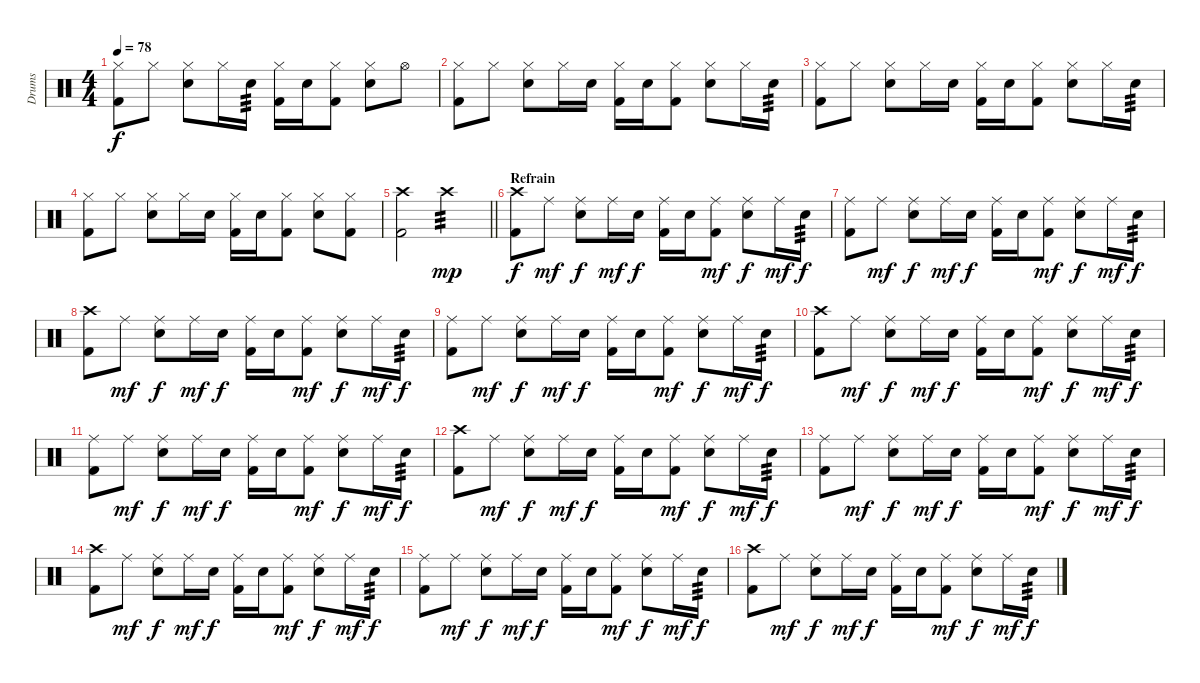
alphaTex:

\track ("Drums" "Drums") {instrument percussion}
\staff {score}
\articulation defaults
\ts (4 4)
\tempo 78
\clef neutral
\ks c
("Hi-Hat (closed)" "Kick (hit) 2").8{dy f} "Hi-Hat (closed)".8 ("Hi-Hat (closed)" "Snare (hit) 2").8 "Hi-Hat (closed)".16 "Snare (hit) 2".16{tp 3} ("Hi-Hat (closed)" "Kick (hit) 2").16 "Snare (hit) 2".16 ("Hi-Hat (closed)" "Kick (hit) 2").8 ("Hi-Hat (closed)" "Snare (hit) 2").8 "Hi-Hat (open)".8 |
("Hi-Hat (closed)" "Kick (hit) 2").8 "Hi-Hat (closed)".8 ("Hi-Hat (closed)" "Snare (hit) 2").8 "Hi-Hat (closed)".16 "Snare (hit) 2".16 ("Hi-Hat (closed)" "Kick (hit) 2").16 "Snare (hit) 2".16 ("Hi-Hat (closed)" "Kick (hit) 2").8 ("Hi-Hat (closed)" "Snare (hit) 2").8 "Hi-Hat (closed)".16 "Snare (hit) 2".16{tp 3} |
("Hi-Hat (closed)" "Kick (hit) 2").8 "Hi-Hat (closed)".8 ("Hi-Hat (closed)" "Snare (hit) 2").8 "Hi-Hat (closed)".16 "Snare (hit) 2".16 ("Hi-Hat (closed)" "Kick (hit) 2").16 "Snare (hit) 2".16 ("Hi-Hat (closed)" "Kick (hit) 2").8 ("Hi-Hat (closed)" "Snare (hit) 2").8 "Hi-Hat (closed)".16 "Snare (hit) 2".16{tp 3} |
("Hi-Hat (closed)" "Kick (hit) 2").8 "Hi-Hat (closed)".8 ("Hi-Hat (closed)" "Snare (hit) 2").8 "Hi-Hat (closed)".16 "Snare (hit) 2".16 ("Hi-Hat (closed)" "Kick (hit) 2").16 "Snare (hit) 2".16 ("Hi-Hat (closed)" "Kick (hit) 2").8 ("Hi-Hat (closed)" "Snare (hit) 2").8 ("Hi-Hat (closed)" "Kick (hit) 2").8 |
\barLineRight lightlight
("Crash high (hit)" "Kick (hit) 2").2{volume 0} "Crash high (hit)".2{tp 3 dy mp volume 13} |
\section ("" "Refrain")
("Crash high (hit)" "Kick (hit) 2").8{dy f} "Ride (middle)".8{dy mf} ("Ride (middle)" "Snare (hit) 2").8{dy f} "Ride (middle)".16{dy mf} "Snare (hit) 2".16{dy f} ("Ride (middle)" "Kick (hit) 2").16 "Snare (hit) 2".16 ("Ride (middle)" "Kick (hit) 2").8{dy mf} ("Ride (middle)" "Snare (hit) 2").8{dy f} "Ride (middle)".16{dy mf} "Snare (hit) 2".16{tp 3 dy f} |
("Ride (middle)" "Kick (hit) 2").8 "Ride (middle)".8{dy mf} ("Ride (middle)" "Snare (hit) 2").8{dy f} "Ride (middle)".16{dy mf} "Snare (hit) 2".16{dy f} ("Ride (middle)" "Kick (hit) 2").16 "Snare (hit) 2".16 ("Ride (middle)" "Kick (hit) 2").8{dy mf} ("Ride (middle)" "Snare (hit) 2").8{dy f} "Ride (middle)".16{dy mf} "Snare (hit) 2".16{tp 3 dy f} |
("Crash high (hit)" "Kick (hit) 2").8 "Ride (middle)".8{dy mf} ("Ride (middle)" "Snare (hit) 2").8{dy f} "Ride (middle)".16{dy mf} "Snare (hit) 2".16{dy f} ("Ride (middle)" "Kick (hit) 2").16 "Snare (hit) 2".16 ("Ride (middle)" "Kick (hit) 2").8{dy mf} ("Ride (middle)" "Snare (hit) 2").8{dy f} "Ride (middle)".16{dy mf} "Snare (hit) 2".16{tp 3 dy f} |
("Ride (middle)" "Kick (hit) 2").8 "Ride (middle)".8{dy mf} ("Ride (middle)" "Snare (hit) 2").8{dy f} "Ride (middle)".16{dy mf} "Snare (hit) 2".16{dy f} ("Ride (middle)" "Kick (hit) 2").16 "Snare (hit) 2".16 ("Ride (middle)" "Kick (hit) 2").8{dy mf} ("Ride (middle)" "Snare (hit) 2").8{dy f} "Ride (middle)".16{dy mf} "Snare (hit) 2".16{tp 3 dy f} |
("Crash high (hit)" "Kick (hit) 2").8 "Ride (middle)".8{dy mf} ("Ride (middle)" "Snare (hit) 2").8{dy f} "Ride (middle)".16{dy mf} "Snare (hit) 2".16{dy f} ("Ride (middle)" "Kick (hit) 2").16 "Snare (hit) 2".16 ("Ride (middle)" "Kick (hit) 2").8{dy mf} ("Ride (middle)" "Snare (hit) 2").8{dy f} "Ride (middle)".16{dy mf} "Snare (hit) 2".16{tp 3 dy f} |
("Ride (middle)" "Kick (hit) 2").8 "Ride (middle)".8{dy mf} ("Ride (middle)" "Snare (hit) 2").8{dy f} "Ride (middle)".16{dy mf} "Snare (hit) 2".16{dy f} ("Ride (middle)" "Kick (hit) 2").16 "Snare (hit) 2".16 ("Ride (middle)" "Kick (hit) 2").8{dy mf} ("Ride (middle)" "Snare (hit) 2").8{dy f} "Ride (middle)".16{dy mf} "Snare (hit) 2".16{tp 3 dy f} |
("Crash high (hit)" "Kick (hit) 2").8 "Ride (middle)".8{dy mf} ("Ride (middle)" "Snare (hit) 2").8{dy f} "Ride (middle)".16{dy mf} "Snare (hit) 2".16{dy f} ("Ride (middle)" "Kick (hit) 2").16 "Snare (hit) 2".16 ("Ride (middle)" "Kick (hit) 2").8{dy mf} ("Ride (middle)" "Snare (hit) 2").8{dy f} "Ride (middle)".16{dy mf} "Snare (hit) 2".16{tp 3 dy f} |
("Ride (middle)" "Kick (hit) 2").8 "Ride (middle)".8{dy mf} ("Ride (middle)" "Snare (hit) 2").8{dy f} "Ride (middle)".16{dy mf} "Snare (hit) 2".16{dy f} ("Ride (middle)" "Kick (hit) 2").16 "Snare (hit) 2".16 ("Ride (middle)" "Kick (hit) 2").8{dy mf} ("Ride (middle)" "Snare (hit) 2").8{dy f} "Ride (middle)".16{dy mf} "Snare (hit) 2".16{tp 3 dy f} |
("Crash high (hit)" "Kick (hit) 2").8 "Ride (middle)".8{dy mf} ("Ride (middle)" "Snare (hit) 2").8{dy f} "Ride (middle)".16{dy mf} "Snare (hit) 2".16{dy f} ("Ride (middle)" "Kick (hit) 2").16 "Snare (hit) 2".16 ("Ride (middle)" "Kick (hit) 2").8{dy mf} ("Ride (middle)" "Snare (hit) 2").8{dy f} "Ride (middle)".16{dy mf} "Snare (hit) 2".16{tp 3 dy f} |
("Ride (middle)" "Kick (hit) 2").8 "Ride (middle)".8{dy mf} ("Ride (middle)" "Snare (hit) 2").8{dy f} "Ride (middle)".16{dy mf} "Snare (hit) 2".16{dy f} ("Ride (middle)" "Kick (hit) 2").16 "Snare (hit) 2".16 ("Ride (middle)" "Kick (hit) 2").8{dy mf} ("Ride (middle)" "Snare (hit) 2").8{dy f} "Ride (middle)".16{dy mf} "Snare (hit) 2".16{tp 3 dy f} |
("Crash high (hit)" "Kick (hit) 2").8 "Ride (middle)".8{dy mf} ("Ride (middle)" "Snare (hit) 2").8{dy f} "Ride (middle)".16{dy mf} "Snare (hit) 2".16{dy f} ("Ride (middle)" "Kick (hit) 2").16 "Snare (hit) 2".16 ("Ride (middle)" "Kick (hit) 2").8{dy mf} ("Ride (middle)" "Snare (hit) 2").8{dy f} "Ride (middle)".16{dy mf} "Snare (hit) 2".16{tp 3 dy f}
